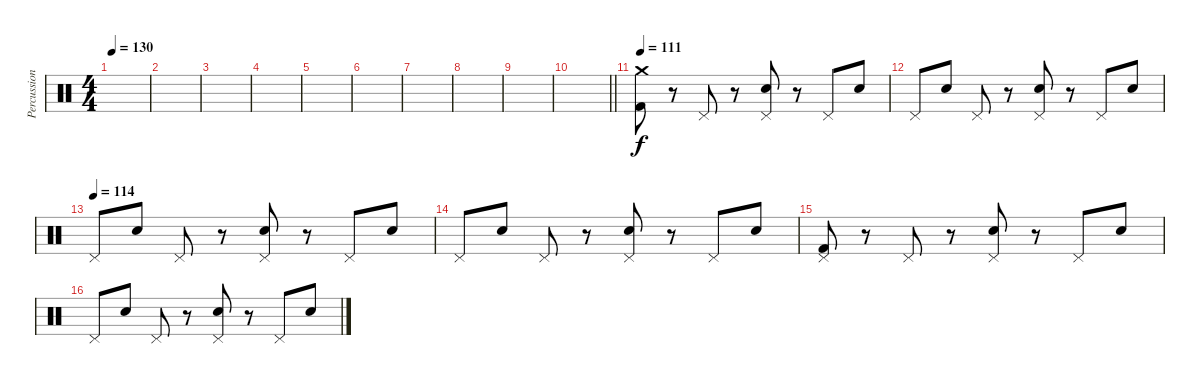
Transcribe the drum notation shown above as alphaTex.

\track ("Percussion" "Percussion") {instrument percussion}
\staff {score}
\articulation defaults
\ts (4 4)
\tempo 130
\clef neutral
\ks c
|
|
|
|
|
|
|
|
|
\barLineRight lightlight
|
\section ("" "")
\tempo 111
("Crash medium (hit)" "Kick (hit) 2").8 r.8 "Pedal Hi-Hat (hit)".8 r.8 ("Pedal Hi-Hat (hit)" "Electric Snare (hit)").8 r.8 "Pedal Hi-Hat (hit)".8 "Electric Snare (hit)".8 |
"Pedal Hi-Hat (hit)".8 "Electric Snare (hit)".8 "Pedal Hi-Hat (hit)".8 r.8 ("Pedal Hi-Hat (hit)" "Electric Snare (hit)").8 r.8 "Pedal Hi-Hat (hit)".8 "Electric Snare (hit)".8 |
\tempo (114)
"Pedal Hi-Hat (hit)".8 "Electric Snare (hit)".8 "Pedal Hi-Hat (hit)".8 r.8 ("Pedal Hi-Hat (hit)" "Electric Snare (hit)").8 r.8 "Pedal Hi-Hat (hit)".8 "Electric Snare (hit)".8 |
"Pedal Hi-Hat (hit)".8 "Electric Snare (hit)".8 "Pedal Hi-Hat (hit)".8 r.8 ("Pedal Hi-Hat (hit)" "Electric Snare (hit)").8 r.8 "Pedal Hi-Hat (hit)".8 "Electric Snare (hit)".8 |
("Pedal Hi-Hat (hit)" "Kick (hit) 2").8 r.8 "Pedal Hi-Hat (hit)".8 r.8 ("Pedal Hi-Hat (hit)" "Electric Snare (hit)").8 r.8 "Pedal Hi-Hat (hit)".8 "Electric Snare (hit)".8 |
"Pedal Hi-Hat (hit)".8 "Electric Snare (hit)".8 "Pedal Hi-Hat (hit)".8 r.8 ("Pedal Hi-Hat (hit)" "Electric Snare (hit)").8 r.8 "Pedal Hi-Hat (hit)".8 "Electric Snare (hit)".8
